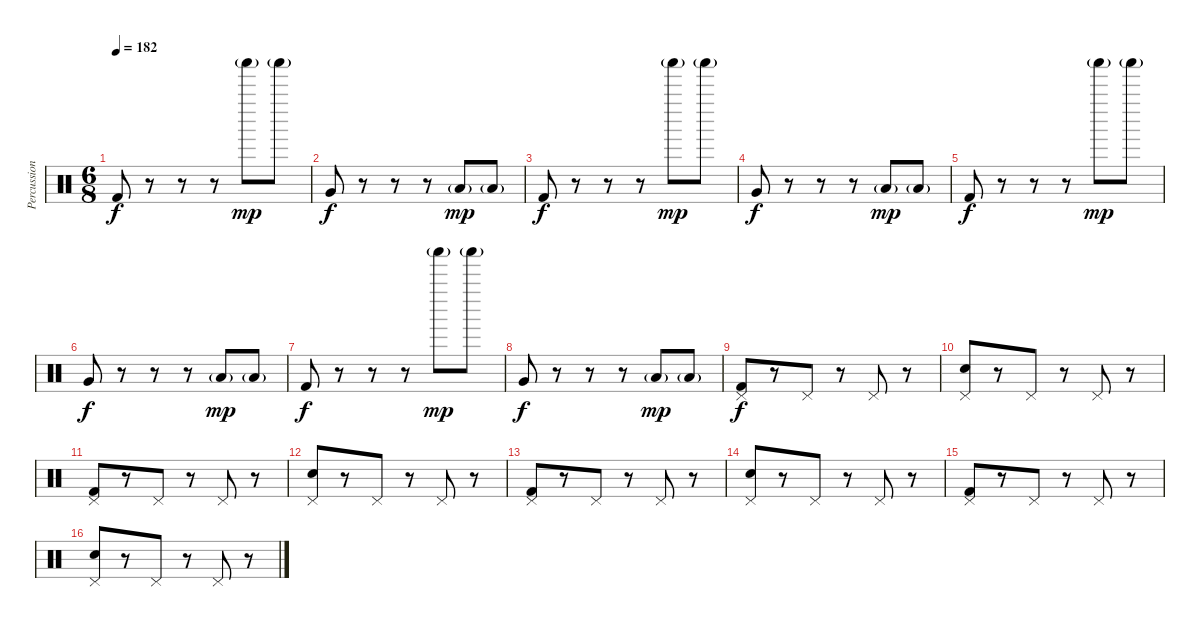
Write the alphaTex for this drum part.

\track ("Percussion" "Percussion") {instrument percussion}
\staff {score}
\articulation defaults
\ts (6 8)
\tempo 182
\clef neutral
\ks c "Kick (hit) 2".8{dy f balance 8}
r.8 r.8 r.8 "Shaker (hit)"{g}.8{dy mp} "Shaker (hit)"{g}.8 |
"Very Low Tom (hit)".8{dy f} r.8 r.8 r.8 "Low Floor Tom (hit)"{g}.8{dy mp} "Low Floor Tom (hit)"{g}.8 |
"Kick (hit) 2".8{dy f} r.8 r.8 r.8 "Shaker (hit)"{g}.8{dy mp} "Shaker (hit)"{g}.8 |
"Very Low Tom (hit)".8{dy f} r.8 r.8 r.8 "Low Floor Tom (hit)"{g}.8{dy mp} "Low Floor Tom (hit)"{g}.8 |
"Kick (hit) 2".8{dy f balance 8} r.8 r.8 r.8 "Shaker (hit)"{g}.8{dy mp} "Shaker (hit)"{g}.8 |
"Very Low Tom (hit)".8{dy f} r.8 r.8 r.8 "Low Floor Tom (hit)"{g}.8{dy mp} "Low Floor Tom (hit)"{g}.8 |
"Kick (hit) 2".8{dy f} r.8 r.8 r.8 "Shaker (hit)"{g}.8{dy mp} "Shaker (hit)"{g}.8 |
"Very Low Tom (hit)".8{dy f} r.8 r.8 r.8 "Low Floor Tom (hit)"{g}.8{dy mp} "Low Floor Tom (hit)"{g}.8 |
("Kick (hit) 2" "Pedal Hi-Hat (hit)").8{dy f} r.8 "Pedal Hi-Hat (hit)".8 r.8 "Pedal Hi-Hat (hit)".8 r.8 |
("Snare (hit) 2" "Pedal Hi-Hat (hit)").8 r.8 "Pedal Hi-Hat (hit)".8 r.8 "Pedal Hi-Hat (hit)".8 r.8 |
("Kick (hit) 2" "Pedal Hi-Hat (hit)").8 r.8 "Pedal Hi-Hat (hit)".8 r.8 "Pedal Hi-Hat (hit)".8 r.8 |
("Snare (hit) 2" "Pedal Hi-Hat (hit)").8 r.8 "Pedal Hi-Hat (hit)".8 r.8 "Pedal Hi-Hat (hit)".8 r.8 |
("Kick (hit) 2" "Pedal Hi-Hat (hit)").8 r.8 "Pedal Hi-Hat (hit)".8 r.8 "Pedal Hi-Hat (hit)".8 r.8 |
("Snare (hit) 2" "Pedal Hi-Hat (hit)").8 r.8 "Pedal Hi-Hat (hit)".8 r.8 "Pedal Hi-Hat (hit)".8 r.8 |
("Kick (hit) 2" "Pedal Hi-Hat (hit)").8 r.8 "Pedal Hi-Hat (hit)".8 r.8 "Pedal Hi-Hat (hit)".8 r.8 |
("Snare (hit) 2" "Pedal Hi-Hat (hit)").8 r.8 "Pedal Hi-Hat (hit)".8 r.8 "Pedal Hi-Hat (hit)".8 r.8
